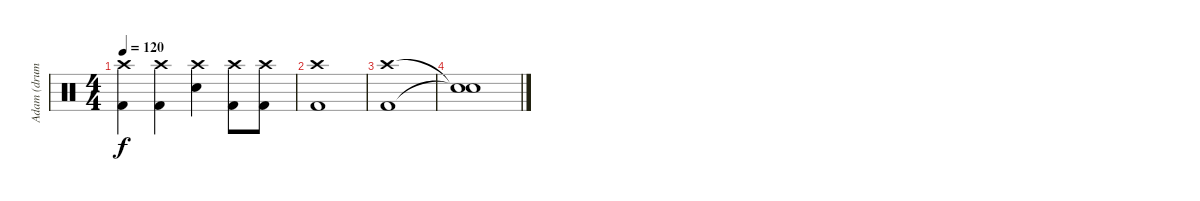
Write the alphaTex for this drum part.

\track ("Adam (drums)" "Adam (drum") {instrument percussion}
\staff {score}
\articulation defaults
\ts (4 4)
\tempo 120
\clef neutral
\ks c
("Crash high (hit)" "Kick (hit) 2").4{dy f} ("Crash high (hit)" "Kick (hit) 2").4 ("Crash high (hit)" "Snare (hit) 2").4 ("Crash high (hit)" "Kick (hit) 2").8 ("Crash high (hit)" "Kick (hit) 2").8 |
("Crash high (hit)" "Kick (hit) 2").1 |
("Crash high (hit)" "Kick (hit) 2").1 |
("Snare (hit)"{t} "Snare (hit)"{t}).1
